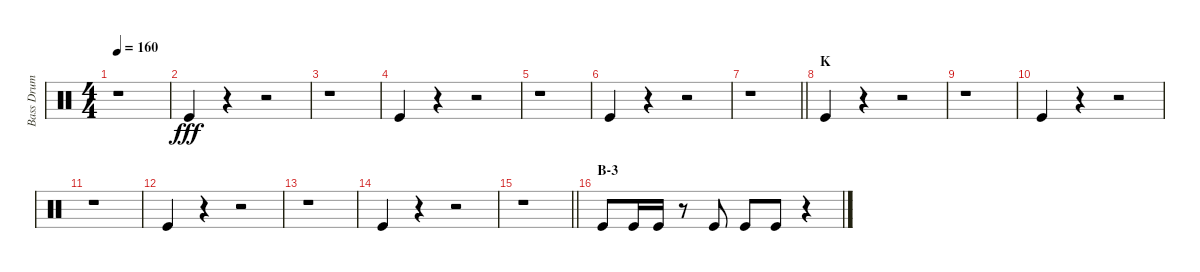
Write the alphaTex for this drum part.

\track ("Bass Drum" "Bass Drum") {instrument percussion}
\staff {score}
\articulation defaults
\ts (4 4)
\tempo 160
\clef neutral
\ks c
r.1{dy fff} |
"Kick (hit)".4 r.4 r.2 |
r.1 |
"Kick (hit)".4 r.4 r.2 |
r.1 |
"Kick (hit)".4 r.4 r.2 |
\barLineRight lightlight
r.1 |
\section ("" "K")
"Kick (hit)".4 r.4 r.2 |
r.1 |
"Kick (hit)".4 r.4 r.2 |
r.1 |
"Kick (hit)".4 r.4 r.2 |
r.1 |
"Kick (hit)".4 r.4 r.2 |
\barLineRight lightlight
r.1 |
\section ("" "B-3")
"Kick (hit)".8 "Kick (hit)".16 "Kick (hit)".16 r.8 "Kick (hit)".8 "Kick (hit)".8 "Kick (hit)".8 r.4
